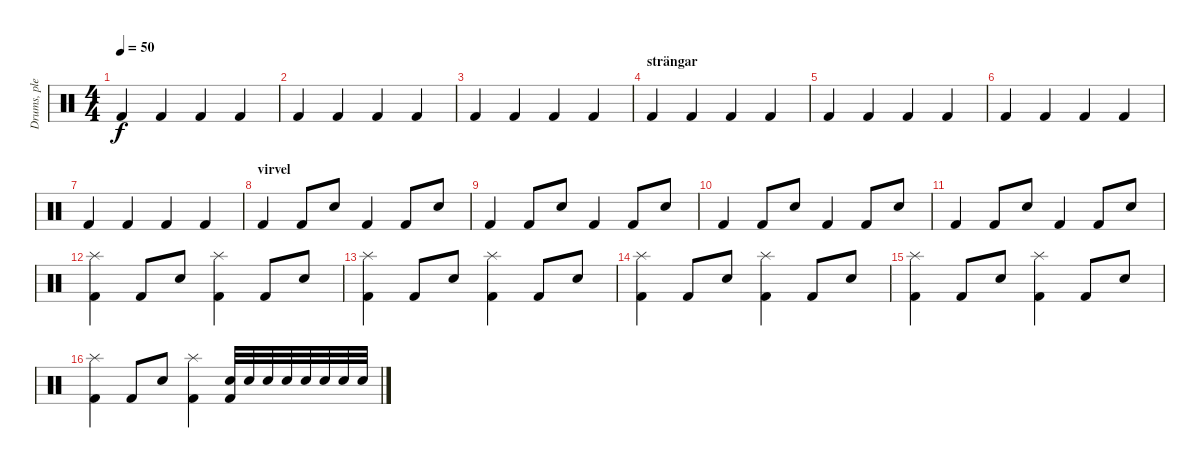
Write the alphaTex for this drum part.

\track ("Drums, please" "Drums, ple") {instrument percussion}
\staff {score}
\articulation defaults
\ts (4 4)
\tempo 50
\clef neutral
\ks c "Kick (hit) 2".4{dy f} "Kick (hit) 2".4 "Kick (hit) 2".4 "Kick (hit) 2".4
|
"Kick (hit) 2".4 "Kick (hit) 2".4 "Kick (hit) 2".4 "Kick (hit) 2".4 |
"Kick (hit) 2".4 "Kick (hit) 2".4 "Kick (hit) 2".4 "Kick (hit) 2".4 |
\section ("" "strängar")
"Kick (hit) 2".4 "Kick (hit) 2".4 "Kick (hit) 2".4 "Kick (hit) 2".4 |
"Kick (hit) 2".4 "Kick (hit) 2".4 "Kick (hit) 2".4 "Kick (hit) 2".4 |
"Kick (hit) 2".4 "Kick (hit) 2".4 "Kick (hit) 2".4 "Kick (hit) 2".4 |
"Kick (hit) 2".4 "Kick (hit) 2".4 "Kick (hit) 2".4 "Kick (hit) 2".4 |
\section ("" "virvel")
"Kick (hit) 2".4 "Kick (hit) 2".8 "Electric Snare (hit)".8 "Kick (hit) 2".4 "Kick (hit) 2".8 "Electric Snare (hit)".8 |
"Kick (hit) 2".4 "Kick (hit) 2".8 "Electric Snare (hit)".8 "Kick (hit) 2".4 "Kick (hit) 2".8 "Electric Snare (hit)".8 |
"Kick (hit) 2".4 "Kick (hit) 2".8 "Electric Snare (hit)".8 "Kick (hit) 2".4 "Kick (hit) 2".8 "Electric Snare (hit)".8 |
"Kick (hit) 2".4 "Kick (hit) 2".8 "Electric Snare (hit)".8 "Kick (hit) 2".4 "Kick (hit) 2".8 "Electric Snare (hit)".8 |
("Kick (hit) 2" "Splash (hit)").4 "Kick (hit) 2".8 "Electric Snare (hit)".8 ("Kick (hit) 2" "Splash (hit)").4 "Kick (hit) 2".8 "Electric Snare (hit)".8 |
("Kick (hit) 2" "Splash (hit)").4 "Kick (hit) 2".8 "Electric Snare (hit)".8 ("Kick (hit) 2" "Splash (hit)").4 "Kick (hit) 2".8 "Electric Snare (hit)".8 |
("Kick (hit) 2" "Splash (hit)").4 "Kick (hit) 2".8 "Electric Snare (hit)".8 ("Kick (hit) 2" "Splash (hit)").4 "Kick (hit) 2".8 "Electric Snare (hit)".8 |
("Kick (hit) 2" "Splash (hit)").4 "Kick (hit) 2".8 "Electric Snare (hit)".8 ("Kick (hit) 2" "Splash (hit)").4 "Kick (hit) 2".8 "Electric Snare (hit)".8 |
("Kick (hit) 2" "Splash (hit)").4 "Kick (hit) 2".8 "Electric Snare (hit)".8 ("Kick (hit) 2" "Splash (hit)").4 ("Kick (hit) 2" "Electric Snare (hit)").32 "Electric Snare (hit)".32 "Electric Snare (hit)".32 "Electric Snare (hit)".32 "Electric Snare (hit)".32 "Electric Snare (hit)".32 "Electric Snare (hit)".32 "Electric Snare (hit)".32
